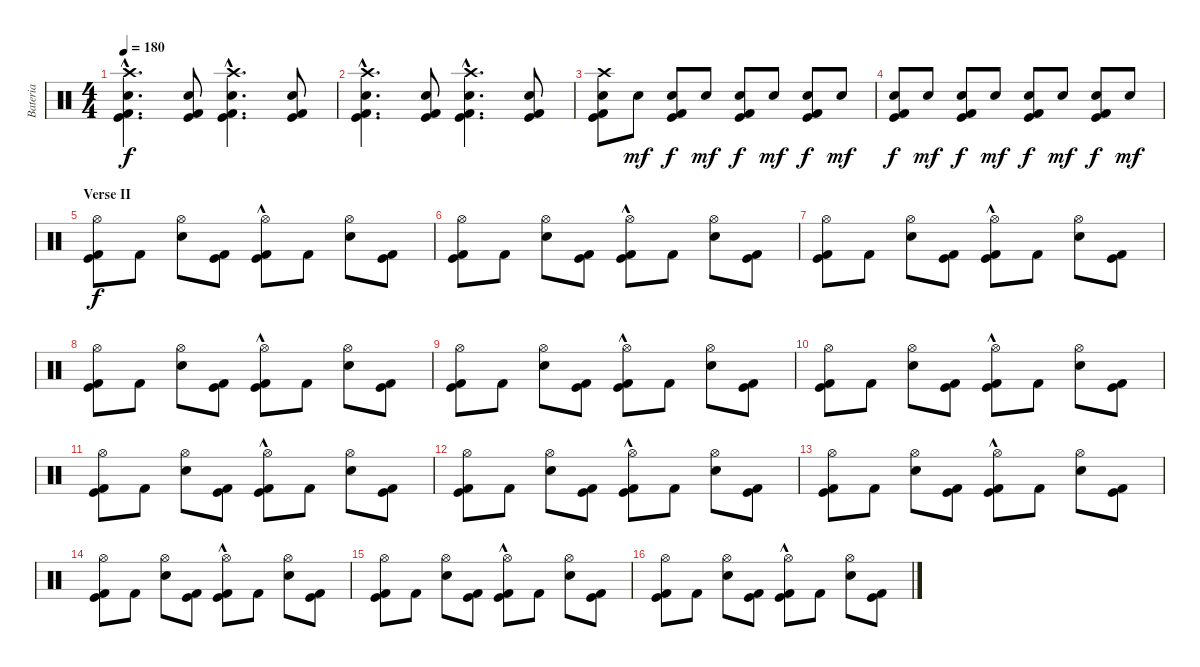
\track ("Bateria" "Bateria") {instrument percussion}
\staff {score}
\articulation defaults
\ts (4 4)
\tempo 180
\clef neutral
\ks c
("Crash high (hit)"{hac} "Snare (hit) 2"{hac} "Kick (hit)"{hac} "Kick (hit) 2"{hac}).4{d dy f} ("Snare (hit) 2" "Kick (hit)" "Kick (hit) 2").8 ("Crash high (hit)"{hac} "Snare (hit) 2"{hac} "Kick (hit)"{hac} "Kick (hit) 2"{hac}).4{d} ("Snare (hit) 2" "Kick (hit)" "Kick (hit) 2").8 |
("Crash high (hit)"{hac} "Snare (hit) 2"{hac} "Kick (hit)"{hac} "Kick (hit) 2"{hac}).4{d} ("Snare (hit) 2" "Kick (hit)" "Kick (hit) 2").8 ("Crash high (hit)"{hac} "Snare (hit) 2"{hac} "Kick (hit)"{hac} "Kick (hit) 2"{hac}).4{d} ("Snare (hit) 2" "Kick (hit)" "Kick (hit) 2").8 |
("Crash high (hit)" "Snare (hit) 2" "Kick (hit)" "Kick (hit) 2").8 "Snare (hit) 2".8{dy mf} ("Snare (hit) 2" "Kick (hit)" "Kick (hit) 2").8{dy f} "Snare (hit) 2".8{dy mf} ("Snare (hit) 2" "Kick (hit)" "Kick (hit) 2").8{dy f} "Snare (hit) 2".8{dy mf} ("Snare (hit) 2" "Kick (hit)" "Kick (hit) 2").8{dy f} "Snare (hit) 2".8{dy mf} |
("Snare (hit) 2" "Kick (hit)" "Kick (hit) 2").8{dy f} "Snare (hit) 2".8{dy mf} ("Snare (hit) 2" "Kick (hit)" "Kick (hit) 2").8{dy f} "Snare (hit) 2".8{dy mf} ("Snare (hit) 2" "Kick (hit)" "Kick (hit) 2").8{dy f} "Snare (hit) 2".8{dy mf} ("Snare (hit) 2" "Kick (hit)" "Kick (hit) 2").8{dy f} "Snare (hit) 2".8{dy mf} |
\section ("" "Verse II")
("Hi-Hat (open)" "Kick (hit)" "Kick (hit) 2").8{dy f} "Kick (hit) 2".8 ("Hi-Hat (open)" "Snare (hit) 2").8 ("Kick (hit)" "Kick (hit) 2").8 ("Hi-Hat (open)"{hac} "Kick (hit)" "Kick (hit) 2").8 "Kick (hit) 2".8 ("Hi-Hat (open)" "Snare (hit) 2").8 ("Kick (hit)" "Kick (hit) 2").8 |
("Hi-Hat (open)" "Kick (hit)" "Kick (hit) 2").8 "Kick (hit) 2".8 ("Hi-Hat (open)" "Snare (hit) 2").8 ("Kick (hit)" "Kick (hit) 2").8 ("Hi-Hat (open)"{hac} "Kick (hit)" "Kick (hit) 2").8 "Kick (hit) 2".8 ("Hi-Hat (open)" "Snare (hit) 2").8 ("Kick (hit)" "Kick (hit) 2").8 |
("Hi-Hat (open)" "Kick (hit)" "Kick (hit) 2").8 "Kick (hit) 2".8 ("Hi-Hat (open)" "Snare (hit) 2").8 ("Kick (hit)" "Kick (hit) 2").8 ("Hi-Hat (open)"{hac} "Kick (hit)" "Kick (hit) 2").8 "Kick (hit) 2".8 ("Hi-Hat (open)" "Snare (hit) 2").8 ("Kick (hit)" "Kick (hit) 2").8 |
("Hi-Hat (open)" "Kick (hit)" "Kick (hit) 2").8 "Kick (hit) 2".8 ("Hi-Hat (open)" "Snare (hit) 2").8 ("Kick (hit)" "Kick (hit) 2").8 ("Hi-Hat (open)"{hac} "Kick (hit)" "Kick (hit) 2").8 "Kick (hit) 2".8 ("Hi-Hat (open)" "Snare (hit) 2").8 ("Kick (hit)" "Kick (hit) 2").8 |
("Hi-Hat (open)" "Kick (hit)" "Kick (hit) 2").8 "Kick (hit) 2".8 ("Hi-Hat (open)" "Snare (hit) 2").8 ("Kick (hit)" "Kick (hit) 2").8 ("Hi-Hat (open)"{hac} "Kick (hit)" "Kick (hit) 2").8 "Kick (hit) 2".8 ("Hi-Hat (open)" "Snare (hit) 2").8 ("Kick (hit)" "Kick (hit) 2").8 |
("Hi-Hat (open)" "Kick (hit)" "Kick (hit) 2").8 "Kick (hit) 2".8 ("Hi-Hat (open)" "Snare (hit) 2").8 ("Kick (hit)" "Kick (hit) 2").8 ("Hi-Hat (open)"{hac} "Kick (hit)" "Kick (hit) 2").8 "Kick (hit) 2".8 ("Hi-Hat (open)" "Snare (hit) 2").8 ("Kick (hit)" "Kick (hit) 2").8 |
("Hi-Hat (open)" "Kick (hit)" "Kick (hit) 2").8 "Kick (hit) 2".8 ("Hi-Hat (open)" "Snare (hit) 2").8 ("Kick (hit)" "Kick (hit) 2").8 ("Hi-Hat (open)"{hac} "Kick (hit)" "Kick (hit) 2").8 "Kick (hit) 2".8 ("Hi-Hat (open)" "Snare (hit) 2").8 ("Kick (hit)" "Kick (hit) 2").8 |
("Hi-Hat (open)" "Kick (hit)" "Kick (hit) 2").8 "Kick (hit) 2".8 ("Hi-Hat (open)" "Snare (hit) 2").8 ("Kick (hit)" "Kick (hit) 2").8 ("Hi-Hat (open)"{hac} "Kick (hit)" "Kick (hit) 2").8 "Kick (hit) 2".8 ("Hi-Hat (open)" "Snare (hit) 2").8 ("Kick (hit)" "Kick (hit) 2").8 |
("Hi-Hat (open)" "Kick (hit)" "Kick (hit) 2").8 "Kick (hit) 2".8 ("Hi-Hat (open)" "Snare (hit) 2").8 ("Kick (hit)" "Kick (hit) 2").8 ("Hi-Hat (open)"{hac} "Kick (hit)" "Kick (hit) 2").8 "Kick (hit) 2".8 ("Hi-Hat (open)" "Snare (hit) 2").8 ("Kick (hit)" "Kick (hit) 2").8 |
("Hi-Hat (open)" "Kick (hit)" "Kick (hit) 2").8 "Kick (hit) 2".8 ("Hi-Hat (open)" "Snare (hit) 2").8 ("Kick (hit)" "Kick (hit) 2").8 ("Hi-Hat (open)"{hac} "Kick (hit)" "Kick (hit) 2").8 "Kick (hit) 2".8 ("Hi-Hat (open)" "Snare (hit) 2").8 ("Kick (hit)" "Kick (hit) 2").8 |
("Hi-Hat (open)" "Kick (hit)" "Kick (hit) 2").8 "Kick (hit) 2".8 ("Hi-Hat (open)" "Snare (hit) 2").8 ("Kick (hit)" "Kick (hit) 2").8 ("Hi-Hat (open)"{hac} "Kick (hit)" "Kick (hit) 2").8 "Kick (hit) 2".8 ("Hi-Hat (open)" "Snare (hit) 2").8 ("Kick (hit)" "Kick (hit) 2").8 |
("Hi-Hat (open)" "Kick (hit)" "Kick (hit) 2").8 "Kick (hit) 2".8 ("Hi-Hat (open)" "Snare (hit) 2").8 ("Kick (hit)" "Kick (hit) 2").8 ("Hi-Hat (open)"{hac} "Kick (hit)" "Kick (hit) 2").8 "Kick (hit) 2".8 ("Hi-Hat (open)" "Snare (hit) 2").8 ("Kick (hit)" "Kick (hit) 2").8
